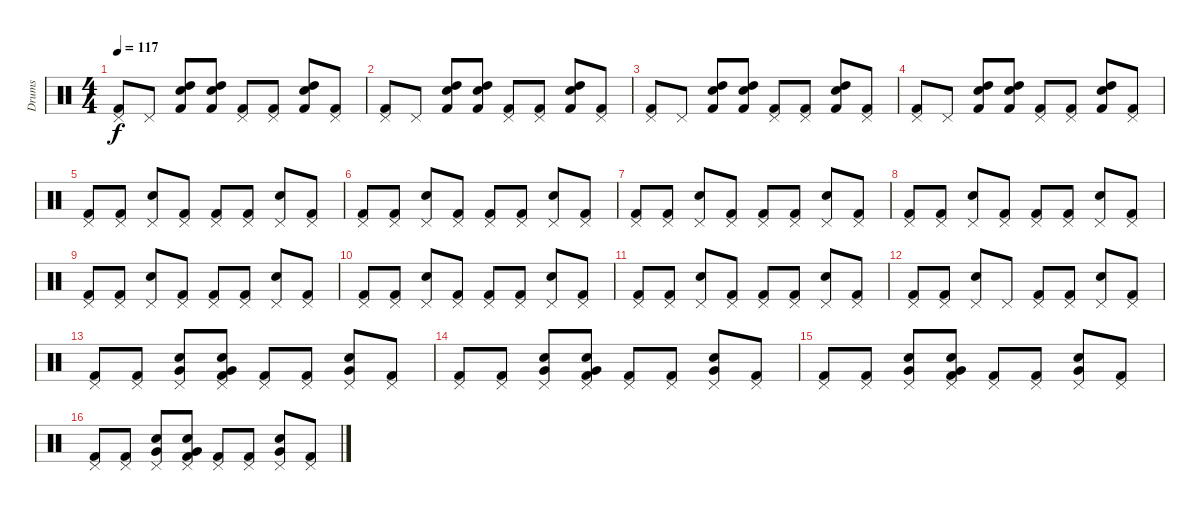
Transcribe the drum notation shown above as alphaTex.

\track ("Drums" "Drums") {instrument percussion}
\staff {score}
\articulation defaults
\ts (4 4)
\tempo 117
\clef neutral
\ks c
("Pedal Hi-Hat (hit)" "Kick (hit) 2").8{dy f} "Pedal Hi-Hat (hit)".8 ("High Tom (hit)" "Snare (hit) 2" "Kick (hit) 2").8 ("High Tom (hit)" "Snare (hit) 2" "Kick (hit) 2").8 ("Pedal Hi-Hat (hit)" "Kick (hit) 2").8 ("Pedal Hi-Hat (hit)" "Kick (hit) 2").8 ("High Tom (hit)" "Snare (hit) 2" "Kick (hit) 2").8 ("Pedal Hi-Hat (hit)" "Kick (hit) 2").8 |
("Pedal Hi-Hat (hit)" "Kick (hit) 2").8 "Pedal Hi-Hat (hit)".8 ("High Tom (hit)" "Snare (hit) 2" "Kick (hit) 2").8 ("High Tom (hit)" "Snare (hit) 2" "Kick (hit) 2").8 ("Pedal Hi-Hat (hit)" "Kick (hit) 2").8 ("Pedal Hi-Hat (hit)" "Kick (hit) 2").8 ("High Tom (hit)" "Snare (hit) 2" "Kick (hit) 2").8 ("Pedal Hi-Hat (hit)" "Kick (hit) 2").8 |
("Pedal Hi-Hat (hit)" "Kick (hit) 2").8 "Pedal Hi-Hat (hit)".8 ("High Tom (hit)" "Snare (hit) 2" "Kick (hit) 2").8 ("High Tom (hit)" "Snare (hit) 2" "Kick (hit) 2").8 ("Pedal Hi-Hat (hit)" "Kick (hit) 2").8 ("Pedal Hi-Hat (hit)" "Kick (hit) 2").8 ("High Tom (hit)" "Snare (hit) 2" "Kick (hit) 2").8 ("Pedal Hi-Hat (hit)" "Kick (hit) 2").8 |
("Pedal Hi-Hat (hit)" "Kick (hit) 2").8 "Pedal Hi-Hat (hit)".8 ("High Tom (hit)" "Snare (hit) 2" "Kick (hit) 2").8 ("High Tom (hit)" "Snare (hit) 2" "Kick (hit) 2").8 ("Pedal Hi-Hat (hit)" "Kick (hit) 2").8 ("Pedal Hi-Hat (hit)" "Kick (hit) 2").8 ("High Tom (hit)" "Snare (hit) 2" "Kick (hit) 2").8 ("Pedal Hi-Hat (hit)" "Kick (hit) 2").8 |
("Pedal Hi-Hat (hit)" "Kick (hit) 2").8 ("Pedal Hi-Hat (hit)" "Kick (hit) 2").8 ("Snare (hit) 2" "Pedal Hi-Hat (hit)").8 ("Pedal Hi-Hat (hit)" "Kick (hit) 2").8 ("Pedal Hi-Hat (hit)" "Kick (hit) 2").8 ("Pedal Hi-Hat (hit)" "Kick (hit) 2").8 ("Snare (hit) 2" "Pedal Hi-Hat (hit)").8 ("Pedal Hi-Hat (hit)" "Kick (hit) 2").8 |
("Pedal Hi-Hat (hit)" "Kick (hit) 2").8 ("Pedal Hi-Hat (hit)" "Kick (hit) 2").8 ("Snare (hit) 2" "Pedal Hi-Hat (hit)").8 ("Pedal Hi-Hat (hit)" "Kick (hit) 2").8 ("Pedal Hi-Hat (hit)" "Kick (hit) 2").8 ("Pedal Hi-Hat (hit)" "Kick (hit) 2").8 ("Snare (hit) 2" "Pedal Hi-Hat (hit)").8 ("Pedal Hi-Hat (hit)" "Kick (hit) 2").8 |
("Pedal Hi-Hat (hit)" "Kick (hit) 2").8 ("Pedal Hi-Hat (hit)" "Kick (hit) 2").8 ("Snare (hit) 2" "Pedal Hi-Hat (hit)").8 ("Pedal Hi-Hat (hit)" "Kick (hit) 2").8 ("Pedal Hi-Hat (hit)" "Kick (hit) 2").8 ("Pedal Hi-Hat (hit)" "Kick (hit) 2").8 ("Snare (hit) 2" "Pedal Hi-Hat (hit)").8 ("Pedal Hi-Hat (hit)" "Kick (hit) 2").8 |
("Pedal Hi-Hat (hit)" "Kick (hit) 2").8 ("Pedal Hi-Hat (hit)" "Kick (hit) 2").8 ("Snare (hit) 2" "Pedal Hi-Hat (hit)").8 ("Pedal Hi-Hat (hit)" "Kick (hit) 2").8 ("Pedal Hi-Hat (hit)" "Kick (hit) 2").8 ("Pedal Hi-Hat (hit)" "Kick (hit) 2").8 ("Snare (hit) 2" "Pedal Hi-Hat (hit)").8 ("Pedal Hi-Hat (hit)" "Kick (hit) 2").8 |
("Pedal Hi-Hat (hit)" "Kick (hit) 2").8 ("Pedal Hi-Hat (hit)" "Kick (hit) 2").8 ("Snare (hit) 2" "Pedal Hi-Hat (hit)").8 ("Pedal Hi-Hat (hit)" "Kick (hit) 2").8 ("Pedal Hi-Hat (hit)" "Kick (hit) 2").8 ("Pedal Hi-Hat (hit)" "Kick (hit) 2").8 ("Snare (hit) 2" "Pedal Hi-Hat (hit)").8 ("Pedal Hi-Hat (hit)" "Kick (hit) 2").8 |
("Pedal Hi-Hat (hit)" "Kick (hit) 2").8 ("Pedal Hi-Hat (hit)" "Kick (hit) 2").8 ("Snare (hit) 2" "Pedal Hi-Hat (hit)").8 ("Pedal Hi-Hat (hit)" "Kick (hit) 2").8 ("Pedal Hi-Hat (hit)" "Kick (hit) 2").8 ("Pedal Hi-Hat (hit)" "Kick (hit) 2").8 ("Snare (hit) 2" "Pedal Hi-Hat (hit)").8 ("Pedal Hi-Hat (hit)" "Kick (hit) 2").8 |
("Pedal Hi-Hat (hit)" "Kick (hit) 2").8 ("Pedal Hi-Hat (hit)" "Kick (hit) 2").8 ("Snare (hit) 2" "Pedal Hi-Hat (hit)").8 ("Pedal Hi-Hat (hit)" "Kick (hit) 2").8 ("Pedal Hi-Hat (hit)" "Kick (hit) 2").8 ("Pedal Hi-Hat (hit)" "Kick (hit) 2").8 ("Snare (hit) 2" "Pedal Hi-Hat (hit)").8 ("Pedal Hi-Hat (hit)" "Kick (hit) 2").8 |
("Pedal Hi-Hat (hit)" "Kick (hit) 2").8 ("Pedal Hi-Hat (hit)" "Kick (hit) 2").8 ("Snare (hit) 2" "Pedal Hi-Hat (hit)").8 "Pedal Hi-Hat (hit)".8 ("Pedal Hi-Hat (hit)" "Kick (hit) 2").8 ("Pedal Hi-Hat (hit)" "Kick (hit) 2").8 ("Snare (hit) 2" "Pedal Hi-Hat (hit)").8 ("Pedal Hi-Hat (hit)" "Kick (hit) 2").8 |
("Pedal Hi-Hat (hit)" "Kick (hit) 2").8 ("Pedal Hi-Hat (hit)" "Kick (hit) 2").8 ("Very Low Tom (hit)" "Snare (hit) 2" "Pedal Hi-Hat (hit)").8 ("Very Low Tom (hit)" "Snare (hit) 2" "Pedal Hi-Hat (hit)" "Kick (hit) 2").8 ("Pedal Hi-Hat (hit)" "Kick (hit) 2").8 ("Pedal Hi-Hat (hit)" "Kick (hit) 2").8 ("Very Low Tom (hit)" "Snare (hit) 2" "Pedal Hi-Hat (hit)").8 ("Pedal Hi-Hat (hit)" "Kick (hit) 2").8 |
("Pedal Hi-Hat (hit)" "Kick (hit) 2").8 ("Pedal Hi-Hat (hit)" "Kick (hit) 2").8 ("Very Low Tom (hit)" "Snare (hit) 2" "Pedal Hi-Hat (hit)").8 ("Very Low Tom (hit)" "Snare (hit) 2" "Pedal Hi-Hat (hit)" "Kick (hit) 2").8 ("Pedal Hi-Hat (hit)" "Kick (hit) 2").8 ("Pedal Hi-Hat (hit)" "Kick (hit) 2").8 ("Very Low Tom (hit)" "Snare (hit) 2" "Pedal Hi-Hat (hit)").8 ("Pedal Hi-Hat (hit)" "Kick (hit) 2").8 |
("Pedal Hi-Hat (hit)" "Kick (hit) 2").8 ("Pedal Hi-Hat (hit)" "Kick (hit) 2").8 ("Very Low Tom (hit)" "Snare (hit) 2" "Pedal Hi-Hat (hit)").8 ("Very Low Tom (hit)" "Snare (hit) 2" "Pedal Hi-Hat (hit)" "Kick (hit) 2").8 ("Pedal Hi-Hat (hit)" "Kick (hit) 2").8 ("Pedal Hi-Hat (hit)" "Kick (hit) 2").8 ("Very Low Tom (hit)" "Snare (hit) 2" "Pedal Hi-Hat (hit)").8 ("Pedal Hi-Hat (hit)" "Kick (hit) 2").8 |
("Pedal Hi-Hat (hit)" "Kick (hit) 2").8 ("Pedal Hi-Hat (hit)" "Kick (hit) 2").8 ("Very Low Tom (hit)" "Snare (hit) 2" "Pedal Hi-Hat (hit)").8 ("Very Low Tom (hit)" "Snare (hit) 2" "Pedal Hi-Hat (hit)" "Kick (hit) 2").8 ("Pedal Hi-Hat (hit)" "Kick (hit) 2").8 ("Pedal Hi-Hat (hit)" "Kick (hit) 2").8 ("Very Low Tom (hit)" "Snare (hit) 2" "Pedal Hi-Hat (hit)").8 ("Pedal Hi-Hat (hit)" "Kick (hit) 2").8
